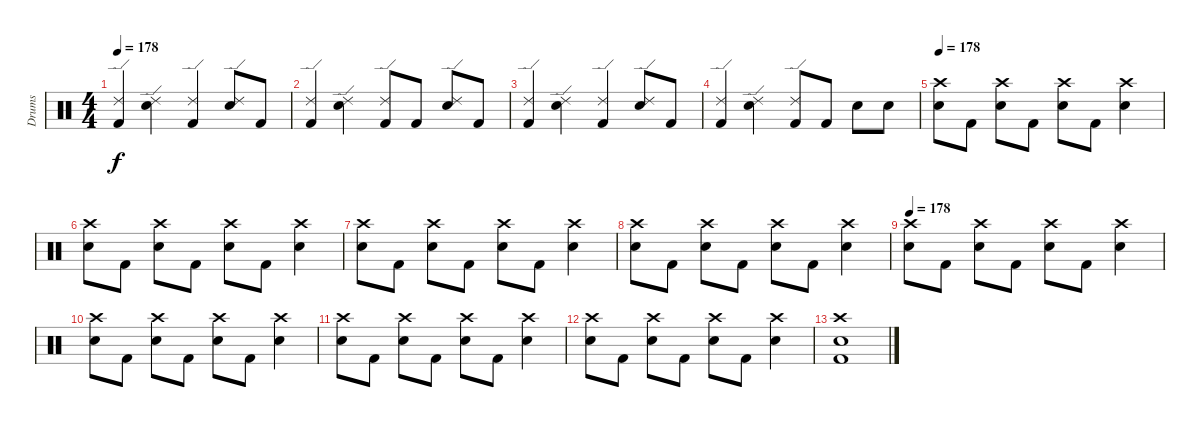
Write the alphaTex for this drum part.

\track ("Drums" "Drums") {instrument percussion}
\staff {score}
\articulation defaults
\ts (4 4)
\tempo 178
\clef neutral
\ks c
("Ride (edge) 2" "Kick (hit) 2").4{dy f} ("Ride (edge) 2" "Electric Snare (hit)").4 ("Ride (edge) 2" "Kick (hit) 2").4 ("Ride (edge) 2" "Electric Snare (hit)").8 "Kick (hit) 2".8 |
("Ride (edge) 2" "Kick (hit) 2").4 ("Ride (edge) 2" "Electric Snare (hit)").4 ("Ride (edge) 2" "Kick (hit) 2").8 "Kick (hit) 2".8 ("Ride (edge) 2" "Electric Snare (hit)").8 "Kick (hit) 2".8 |
("Ride (edge) 2" "Kick (hit) 2").4 ("Ride (edge) 2" "Electric Snare (hit)").4 ("Ride (edge) 2" "Kick (hit) 2").4 ("Ride (edge) 2" "Electric Snare (hit)").8 "Kick (hit) 2".8 |
("Ride (edge) 2" "Kick (hit) 2").4 ("Ride (edge) 2" "Electric Snare (hit)").4 ("Ride (edge) 2" "Kick (hit) 2").8 "Kick (hit) 2".8 "Electric Snare (hit)".8 "Electric Snare (hit)".8 |
\tempo 178
("Crash high (hit)" "Electric Snare (hit)").8 "Kick (hit) 2".8 ("Crash high (hit)" "Electric Snare (hit)").8 "Kick (hit) 2".8 ("Crash high (hit)" "Electric Snare (hit)").8 "Kick (hit) 2".8 ("Crash high (hit)" "Electric Snare (hit)").4 |
("Crash high (hit)" "Electric Snare (hit)").8 "Kick (hit) 2".8 ("Crash high (hit)" "Electric Snare (hit)").8 "Kick (hit) 2".8 ("Crash high (hit)" "Electric Snare (hit)").8 "Kick (hit) 2".8 ("Crash high (hit)" "Electric Snare (hit)").4 |
("Crash high (hit)" "Electric Snare (hit)").8 "Kick (hit) 2".8 ("Crash high (hit)" "Electric Snare (hit)").8 "Kick (hit) 2".8 ("Crash high (hit)" "Electric Snare (hit)").8 "Kick (hit) 2".8 ("Crash high (hit)" "Electric Snare (hit)").4 |
("Crash high (hit)" "Electric Snare (hit)").8 "Kick (hit) 2".8 ("Crash high (hit)" "Electric Snare (hit)").8 "Kick (hit) 2".8 ("Crash high (hit)" "Electric Snare (hit)").8 "Kick (hit) 2".8 ("Crash high (hit)" "Electric Snare (hit)").4 |
\tempo 178
("Crash high (hit)" "Electric Snare (hit)").8 "Kick (hit) 2".8 ("Crash high (hit)" "Electric Snare (hit)").8 "Kick (hit) 2".8 ("Crash high (hit)" "Electric Snare (hit)").8 "Kick (hit) 2".8 ("Crash high (hit)" "Electric Snare (hit)").4 |
("Crash high (hit)" "Electric Snare (hit)").8 "Kick (hit) 2".8 ("Crash high (hit)" "Electric Snare (hit)").8 "Kick (hit) 2".8 ("Crash high (hit)" "Electric Snare (hit)").8 "Kick (hit) 2".8 ("Crash high (hit)" "Electric Snare (hit)").4 |
("Crash high (hit)" "Electric Snare (hit)").8 "Kick (hit) 2".8 ("Crash high (hit)" "Electric Snare (hit)").8 "Kick (hit) 2".8 ("Crash high (hit)" "Electric Snare (hit)").8 "Kick (hit) 2".8 ("Crash high (hit)" "Electric Snare (hit)").4 |
("Crash high (hit)" "Electric Snare (hit)").8 "Kick (hit) 2".8 ("Crash high (hit)" "Electric Snare (hit)").8 "Kick (hit) 2".8 ("Crash high (hit)" "Electric Snare (hit)").8 "Kick (hit) 2".8 ("Crash high (hit)" "Electric Snare (hit)").4 |
("Crash high (hit)" "Electric Snare (hit)" "Kick (hit) 2").1
